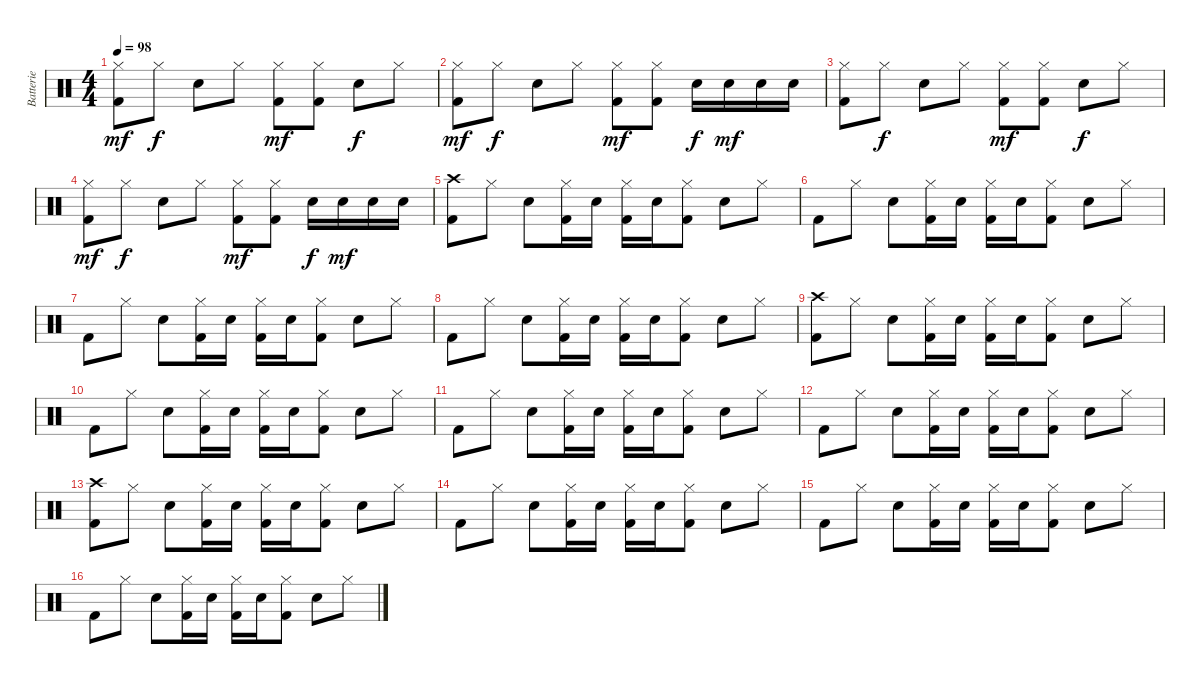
\track ("Batterie" "Batterie") {instrument percussion}
\staff {score}
\articulation defaults
\ts (4 4)
\tempo 98
\clef neutral
\ks c
("Kick (hit) 2" "Hi-Hat (closed)").8{dy mf} "Hi-Hat (closed)".8{dy f} "Snare (hit) 2".8 "Hi-Hat (closed)".8 ("Kick (hit) 2" "Hi-Hat (closed)").8{dy mf} ("Kick (hit) 2" "Hi-Hat (closed)").8 "Snare (hit) 2".8{dy f} "Hi-Hat (closed)".8 |
("Kick (hit) 2" "Hi-Hat (closed)").8{dy mf} "Hi-Hat (closed)".8{dy f} "Snare (hit) 2".8 "Hi-Hat (closed)".8 ("Kick (hit) 2" "Hi-Hat (closed)").8{dy mf} ("Kick (hit) 2" "Hi-Hat (closed)").8 "Snare (hit) 2".16{dy f} "Snare (hit) 2".16{dy mf} "Snare (hit) 2".16 "Snare (hit) 2".16 |
("Kick (hit) 2" "Hi-Hat (closed)").8 "Hi-Hat (closed)".8{dy f} "Snare (hit) 2".8 "Hi-Hat (closed)".8 ("Kick (hit) 2" "Hi-Hat (closed)").8{dy mf} ("Kick (hit) 2" "Hi-Hat (closed)").8 "Snare (hit) 2".8{dy f} "Hi-Hat (closed)".8 |
("Kick (hit) 2" "Hi-Hat (closed)").8{dy mf} "Hi-Hat (closed)".8{dy f} "Snare (hit) 2".8 "Hi-Hat (closed)".8 ("Kick (hit) 2" "Hi-Hat (closed)").8{dy mf} ("Kick (hit) 2" "Hi-Hat (closed)").8 "Snare (hit) 2".16{dy f} "Snare (hit) 2".16{dy mf} "Snare (hit) 2".16 "Snare (hit) 2".16 |
("Kick (hit) 2" "Crash high (hit)").8 "Hi-Hat (closed)".8 "Electric Snare (hit)".8 ("Kick (hit) 2" "Hi-Hat (closed)").16 "Snare (hit) 2".16 ("Kick (hit) 2" "Hi-Hat (closed)").16 "Snare (hit) 2".16 ("Kick (hit) 2" "Hi-Hat (closed)").8 "Electric Snare (hit)".8 "Hi-Hat (closed)".8 |
"Kick (hit) 2".8 "Hi-Hat (closed)".8 "Electric Snare (hit)".8 ("Kick (hit) 2" "Hi-Hat (closed)").16 "Snare (hit) 2".16 ("Kick (hit) 2" "Hi-Hat (closed)").16 "Snare (hit) 2".16 ("Kick (hit) 2" "Hi-Hat (closed)").8 "Electric Snare (hit)".8 "Hi-Hat (closed)".8 |
"Kick (hit) 2".8 "Hi-Hat (closed)".8 "Electric Snare (hit)".8 ("Kick (hit) 2" "Hi-Hat (closed)").16 "Snare (hit) 2".16 ("Kick (hit) 2" "Hi-Hat (closed)").16 "Snare (hit) 2".16 ("Kick (hit) 2" "Hi-Hat (closed)").8 "Electric Snare (hit)".8 "Hi-Hat (closed)".8 |
"Kick (hit) 2".8 "Hi-Hat (closed)".8 "Electric Snare (hit)".8 ("Kick (hit) 2" "Hi-Hat (closed)").16 "Snare (hit) 2".16 ("Kick (hit) 2" "Hi-Hat (closed)").16 "Snare (hit) 2".16 ("Kick (hit) 2" "Hi-Hat (closed)").8 "Electric Snare (hit)".8 "Hi-Hat (closed)".8 |
("Kick (hit) 2" "Crash high (hit)").8 "Hi-Hat (closed)".8 "Electric Snare (hit)".8 ("Kick (hit) 2" "Hi-Hat (closed)").16 "Snare (hit) 2".16 ("Kick (hit) 2" "Hi-Hat (closed)").16 "Snare (hit) 2".16 ("Kick (hit) 2" "Hi-Hat (closed)").8 "Electric Snare (hit)".8 "Hi-Hat (closed)".8 |
"Kick (hit) 2".8 "Hi-Hat (closed)".8 "Electric Snare (hit)".8 ("Kick (hit) 2" "Hi-Hat (closed)").16 "Snare (hit) 2".16 ("Kick (hit) 2" "Hi-Hat (closed)").16 "Snare (hit) 2".16 ("Kick (hit) 2" "Hi-Hat (closed)").8 "Electric Snare (hit)".8 "Hi-Hat (closed)".8 |
"Kick (hit) 2".8 "Hi-Hat (closed)".8 "Electric Snare (hit)".8 ("Kick (hit) 2" "Hi-Hat (closed)").16 "Snare (hit) 2".16 ("Kick (hit) 2" "Hi-Hat (closed)").16 "Snare (hit) 2".16 ("Kick (hit) 2" "Hi-Hat (closed)").8 "Electric Snare (hit)".8 "Hi-Hat (closed)".8 |
"Kick (hit) 2".8 "Hi-Hat (closed)".8 "Electric Snare (hit)".8 ("Kick (hit) 2" "Hi-Hat (closed)").16 "Snare (hit) 2".16 ("Kick (hit) 2" "Hi-Hat (closed)").16 "Snare (hit) 2".16 ("Kick (hit) 2" "Hi-Hat (closed)").8 "Electric Snare (hit)".8 "Hi-Hat (closed)".8 |
("Kick (hit) 2" "Crash high (hit)").8 "Hi-Hat (closed)".8 "Electric Snare (hit)".8 ("Kick (hit) 2" "Hi-Hat (closed)").16 "Snare (hit) 2".16 ("Kick (hit) 2" "Hi-Hat (closed)").16 "Snare (hit) 2".16 ("Kick (hit) 2" "Hi-Hat (closed)").8 "Electric Snare (hit)".8 "Hi-Hat (closed)".8 |
"Kick (hit) 2".8 "Hi-Hat (closed)".8 "Electric Snare (hit)".8 ("Kick (hit) 2" "Hi-Hat (closed)").16 "Snare (hit) 2".16 ("Kick (hit) 2" "Hi-Hat (closed)").16 "Snare (hit) 2".16 ("Kick (hit) 2" "Hi-Hat (closed)").8 "Electric Snare (hit)".8 "Hi-Hat (closed)".8 |
"Kick (hit) 2".8 "Hi-Hat (closed)".8 "Electric Snare (hit)".8 ("Kick (hit) 2" "Hi-Hat (closed)").16 "Snare (hit) 2".16 ("Kick (hit) 2" "Hi-Hat (closed)").16 "Snare (hit) 2".16 ("Kick (hit) 2" "Hi-Hat (closed)").8 "Electric Snare (hit)".8 "Hi-Hat (closed)".8 |
"Kick (hit) 2".8 "Hi-Hat (closed)".8 "Electric Snare (hit)".8 ("Kick (hit) 2" "Hi-Hat (closed)").16 "Snare (hit) 2".16 ("Kick (hit) 2" "Hi-Hat (closed)").16 "Snare (hit) 2".16 ("Kick (hit) 2" "Hi-Hat (closed)").8 "Electric Snare (hit)".8 "Hi-Hat (closed)".8
